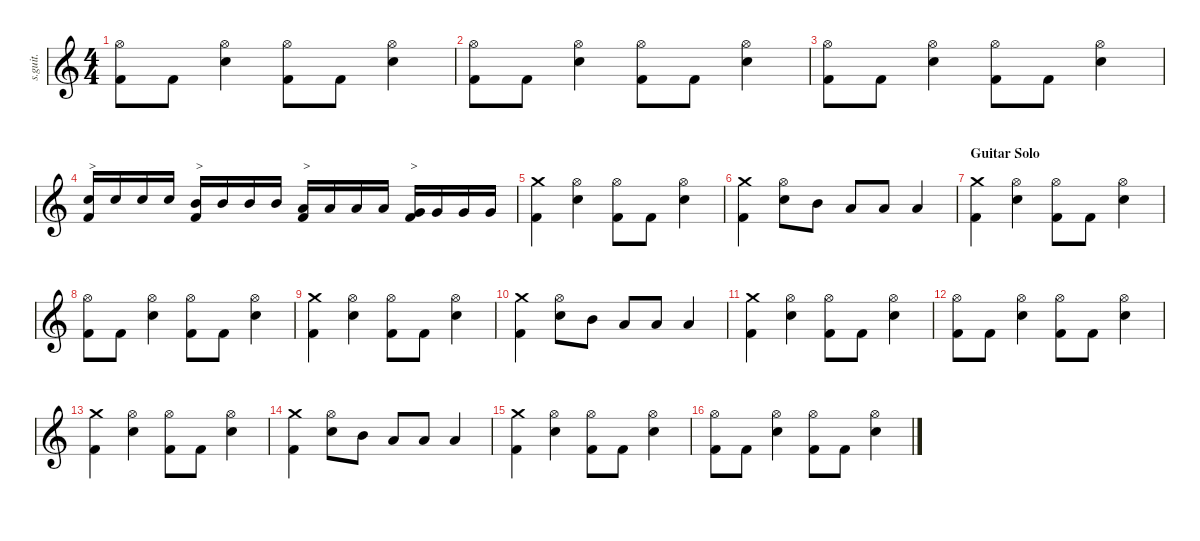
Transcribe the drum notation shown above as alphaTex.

\defaultSystemsLayout 4
\hideDynamics
\bracketExtendMode nobrackets
\track ("Lars Ulrich - Drums" "s.guit.") {instrument percussion}
\staff {score}
\articulation defaults
\ts (4 4)
\tempo (208 hide)
\clef g2
\ks c
("Hi-Hat (open)" "Kick (hit) 2").8{lyrics (0 "") lyrics (1 "") lyrics (2 "") lyrics (3 "") lyrics (4 "") dy f} "Kick (hit) 2".8{lyrics (0 "") lyrics (1 "") lyrics (2 "") lyrics (3 "") lyrics (4 "") dy fff} ("Hi-Hat (open)" "Snare (hit) 2").4{lyrics (0 "") lyrics (1 "") lyrics (2 "") lyrics (3 "") lyrics (4 "") dy f} ("Hi-Hat (open)" "Kick (hit) 2").8{lyrics (0 "") lyrics (1 "") lyrics (2 "") lyrics (3 "") lyrics (4 "")} "Kick (hit) 2".8{lyrics (0 "") lyrics (1 "") lyrics (2 "") lyrics (3 "") lyrics (4 "") dy fff} ("Hi-Hat (open)" "Snare (hit) 2").4{lyrics (0 "") lyrics (1 "") lyrics (2 "") lyrics (3 "") lyrics (4 "") dy f} |
("Hi-Hat (open)" "Kick (hit) 2").8{lyrics (0 "") lyrics (1 "") lyrics (2 "") lyrics (3 "") lyrics (4 "")} "Kick (hit) 2".8{lyrics (0 "") lyrics (1 "") lyrics (2 "") lyrics (3 "") lyrics (4 "") dy fff} ("Hi-Hat (open)" "Snare (hit) 2").4{lyrics (0 "") lyrics (1 "") lyrics (2 "") lyrics (3 "") lyrics (4 "") dy f} ("Hi-Hat (open)" "Kick (hit) 2").8{lyrics (0 "") lyrics (1 "") lyrics (2 "") lyrics (3 "") lyrics (4 "")} "Kick (hit) 2".8{lyrics (0 "") lyrics (1 "") lyrics (2 "") lyrics (3 "") lyrics (4 "") dy fff} ("Hi-Hat (open)" "Snare (hit) 2").4{lyrics (0 "") lyrics (1 "") lyrics (2 "") lyrics (3 "") lyrics (4 "") dy f} |
("Hi-Hat (open)" "Kick (hit) 2").8{lyrics (0 "") lyrics (1 "") lyrics (2 "") lyrics (3 "") lyrics (4 "")} "Kick (hit) 2".8{lyrics (0 "") lyrics (1 "") lyrics (2 "") lyrics (3 "") lyrics (4 "") dy fff} ("Hi-Hat (open)" "Snare (hit) 2").4{lyrics (0 "") lyrics (1 "") lyrics (2 "") lyrics (3 "") lyrics (4 "") dy f} ("Hi-Hat (open)" "Kick (hit) 2").8{lyrics (0 "") lyrics (1 "") lyrics (2 "") lyrics (3 "") lyrics (4 "")} "Kick (hit) 2".8{lyrics (0 "") lyrics (1 "") lyrics (2 "") lyrics (3 "") lyrics (4 "") dy fff} ("Hi-Hat (open)" "Snare (hit) 2").4{lyrics (0 "") lyrics (1 "") lyrics (2 "") lyrics (3 "") lyrics (4 "") dy f} |
("Snare (hit) 2" "Kick (hit) 2").16{txt ">" lyrics (0 "") lyrics (1 "") lyrics (2 "") lyrics (3 "") lyrics (4 "") dy fff} "Snare (hit) 2".16{lyrics (0 "") lyrics (1 "") lyrics (2 "") lyrics (3 "") lyrics (4 "") dy f} "Snare (hit) 2".16{lyrics (0 "") lyrics (1 "") lyrics (2 "") lyrics (3 "") lyrics (4 "")} "Snare (hit) 2".16{lyrics (0 "") lyrics (1 "") lyrics (2 "") lyrics (3 "") lyrics (4 "")} ("Mid Tom (hit)" "Kick (hit) 2").16{txt ">" lyrics (0 "") lyrics (1 "") lyrics (2 "") lyrics (3 "") lyrics (4 "") dy fff} "Mid Tom (hit)".16{lyrics (0 "") lyrics (1 "") lyrics (2 "") lyrics (3 "") lyrics (4 "") dy ff} "Mid Tom (hit)".16{lyrics (0 "") lyrics (1 "") lyrics (2 "") lyrics (3 "") lyrics (4 "")} "Mid Tom (hit)".16{lyrics (0 "") lyrics (1 "") lyrics (2 "") lyrics (3 "") lyrics (4 "")} ("Low Tom (hit)" "Kick (hit) 2").16{txt ">" lyrics (0 "") lyrics (1 "") lyrics (2 "") lyrics (3 "") lyrics (4 "") dy fff} "Low Tom (hit)".16{lyrics (0 "") lyrics (1 "") lyrics (2 "") lyrics (3 "") lyrics (4 "") dy ff} "Low Tom (hit)".16{lyrics (0 "") lyrics (1 "") lyrics (2 "") lyrics (3 "") lyrics (4 "")} "Low Tom (hit)".16{lyrics (0 "") lyrics (1 "") lyrics (2 "") lyrics (3 "") lyrics (4 "")} ("Very Low Tom (hit)" "Kick (hit) 2").16{txt ">" lyrics (0 "") lyrics (1 "") lyrics (2 "") lyrics (3 "") lyrics (4 "")} "Very Low Tom (hit)".16{lyrics (0 "") lyrics (1 "") lyrics (2 "") lyrics (3 "") lyrics (4 "") dy f} "Very Low Tom (hit)".16{lyrics (0 "") lyrics (1 "") lyrics (2 "") lyrics (3 "") lyrics (4 "")} "Very Low Tom (hit)".16{lyrics (0 "") lyrics (1 "") lyrics (2 "") lyrics (3 "") lyrics (4 "")} |
("Crash medium (hit)" "Kick (hit) 2").4{lyrics (0 "") lyrics (1 "") lyrics (2 "") lyrics (3 "") lyrics (4 "")} ("Hi-Hat (open)" "Snare (hit) 2").4{lyrics (0 "") lyrics (1 "") lyrics (2 "") lyrics (3 "") lyrics (4 "")} ("Hi-Hat (open)" "Kick (hit) 2").8{lyrics (0 "") lyrics (1 "") lyrics (2 "") lyrics (3 "") lyrics (4 "")} "Kick (hit) 2".8{lyrics (0 "") lyrics (1 "") lyrics (2 "") lyrics (3 "") lyrics (4 "") dy fff} ("Hi-Hat (open)" "Snare (hit) 2").4{lyrics (0 "") lyrics (1 "") lyrics (2 "") lyrics (3 "") lyrics (4 "") dy f} |
("Crash medium (hit)" "Kick (hit) 2").4{lyrics (0 "") lyrics (1 "") lyrics (2 "") lyrics (3 "") lyrics (4 "")} ("Hi-Hat (open)" "Snare (hit) 2").8{lyrics (0 "") lyrics (1 "") lyrics (2 "") lyrics (3 "") lyrics (4 "")} "Mid Tom (hit)".8{lyrics (0 "") lyrics (1 "") lyrics (2 "") lyrics (3 "") lyrics (4 "") dy fff} "Low Tom (hit)".8{lyrics (0 "") lyrics (1 "") lyrics (2 "") lyrics (3 "") lyrics (4 "")} "Low Tom (hit)".8{lyrics (0 "") lyrics (1 "") lyrics (2 "") lyrics (3 "") lyrics (4 "")} "Low Tom (hit)".4{lyrics (0 "") lyrics (1 "") lyrics (2 "") lyrics (3 "") lyrics (4 "")} |
\section ("" "Guitar Solo")
("Crash medium (hit)" "Kick (hit) 2").4{lyrics (0 "") lyrics (1 "") lyrics (2 "") lyrics (3 "") lyrics (4 "") dy f} ("Hi-Hat (open)" "Snare (hit) 2").4{lyrics (0 "") lyrics (1 "") lyrics (2 "") lyrics (3 "") lyrics (4 "")} ("Hi-Hat (open)" "Kick (hit) 2").8{lyrics (0 "") lyrics (1 "") lyrics (2 "") lyrics (3 "") lyrics (4 "")} "Kick (hit) 2".8{lyrics (0 "") lyrics (1 "") lyrics (2 "") lyrics (3 "") lyrics (4 "") dy fff} ("Hi-Hat (open)" "Snare (hit) 2").4{lyrics (0 "") lyrics (1 "") lyrics (2 "") lyrics (3 "") lyrics (4 "") dy f} |
("Hi-Hat (open)" "Kick (hit) 2").8{lyrics (0 "") lyrics (1 "") lyrics (2 "") lyrics (3 "") lyrics (4 "")} "Kick (hit) 2".8{lyrics (0 "") lyrics (1 "") lyrics (2 "") lyrics (3 "") lyrics (4 "") dy fff} ("Hi-Hat (open)" "Snare (hit) 2").4{lyrics (0 "") lyrics (1 "") lyrics (2 "") lyrics (3 "") lyrics (4 "") dy f} ("Hi-Hat (open)" "Kick (hit) 2").8{lyrics (0 "") lyrics (1 "") lyrics (2 "") lyrics (3 "") lyrics (4 "")} "Kick (hit) 2".8{lyrics (0 "") lyrics (1 "") lyrics (2 "") lyrics (3 "") lyrics (4 "") dy fff} ("Hi-Hat (open)" "Snare (hit) 2").4{lyrics (0 "") lyrics (1 "") lyrics (2 "") lyrics (3 "") lyrics (4 "") dy f} |
("Crash medium (hit)" "Kick (hit) 2").4{lyrics (0 "") lyrics (1 "") lyrics (2 "") lyrics (3 "") lyrics (4 "")} ("Hi-Hat (open)" "Snare (hit) 2").4{lyrics (0 "") lyrics (1 "") lyrics (2 "") lyrics (3 "") lyrics (4 "")} ("Hi-Hat (open)" "Kick (hit) 2").8{lyrics (0 "") lyrics (1 "") lyrics (2 "") lyrics (3 "") lyrics (4 "")} "Kick (hit) 2".8{lyrics (0 "") lyrics (1 "") lyrics (2 "") lyrics (3 "") lyrics (4 "") dy fff} ("Hi-Hat (open)" "Snare (hit) 2").4{lyrics (0 "") lyrics (1 "") lyrics (2 "") lyrics (3 "") lyrics (4 "") dy f} |
("Crash medium (hit)" "Kick (hit) 2").4{lyrics (0 "") lyrics (1 "") lyrics (2 "") lyrics (3 "") lyrics (4 "")} ("Hi-Hat (open)" "Snare (hit) 2").8{lyrics (0 "") lyrics (1 "") lyrics (2 "") lyrics (3 "") lyrics (4 "")} "Mid Tom (hit)".8{lyrics (0 "") lyrics (1 "") lyrics (2 "") lyrics (3 "") lyrics (4 "") dy fff} "Low Tom (hit)".8{lyrics (0 "") lyrics (1 "") lyrics (2 "") lyrics (3 "") lyrics (4 "")} "Low Tom (hit)".8{lyrics (0 "") lyrics (1 "") lyrics (2 "") lyrics (3 "") lyrics (4 "")} "Low Tom (hit)".4{lyrics (0 "") lyrics (1 "") lyrics (2 "") lyrics (3 "") lyrics (4 "")} |
("Crash medium (hit)" "Kick (hit) 2").4{lyrics (0 "") lyrics (1 "") lyrics (2 "") lyrics (3 "") lyrics (4 "") dy f} ("Hi-Hat (open)" "Snare (hit) 2").4{lyrics (0 "") lyrics (1 "") lyrics (2 "") lyrics (3 "") lyrics (4 "")} ("Hi-Hat (open)" "Kick (hit) 2").8{lyrics (0 "") lyrics (1 "") lyrics (2 "") lyrics (3 "") lyrics (4 "")} "Kick (hit) 2".8{lyrics (0 "") lyrics (1 "") lyrics (2 "") lyrics (3 "") lyrics (4 "") dy fff} ("Hi-Hat (open)" "Snare (hit) 2").4{lyrics (0 "") lyrics (1 "") lyrics (2 "") lyrics (3 "") lyrics (4 "") dy f} |
("Hi-Hat (open)" "Kick (hit) 2").8{lyrics (0 "") lyrics (1 "") lyrics (2 "") lyrics (3 "") lyrics (4 "")} "Kick (hit) 2".8{lyrics (0 "") lyrics (1 "") lyrics (2 "") lyrics (3 "") lyrics (4 "") dy fff} ("Hi-Hat (open)" "Snare (hit) 2").4{lyrics (0 "") lyrics (1 "") lyrics (2 "") lyrics (3 "") lyrics (4 "") dy f} ("Hi-Hat (open)" "Kick (hit) 2").8{lyrics (0 "") lyrics (1 "") lyrics (2 "") lyrics (3 "") lyrics (4 "")} "Kick (hit) 2".8{lyrics (0 "") lyrics (1 "") lyrics (2 "") lyrics (3 "") lyrics (4 "") dy fff} ("Hi-Hat (open)" "Snare (hit) 2").4{lyrics (0 "") lyrics (1 "") lyrics (2 "") lyrics (3 "") lyrics (4 "") dy f} |
("Crash medium (hit)" "Kick (hit) 2").4{lyrics (0 "") lyrics (1 "") lyrics (2 "") lyrics (3 "") lyrics (4 "")} ("Hi-Hat (open)" "Snare (hit) 2").4{lyrics (0 "") lyrics (1 "") lyrics (2 "") lyrics (3 "") lyrics (4 "")} ("Hi-Hat (open)" "Kick (hit) 2").8{lyrics (0 "") lyrics (1 "") lyrics (2 "") lyrics (3 "") lyrics (4 "")} "Kick (hit) 2".8{lyrics (0 "") lyrics (1 "") lyrics (2 "") lyrics (3 "") lyrics (4 "") dy fff} ("Hi-Hat (open)" "Snare (hit) 2").4{lyrics (0 "") lyrics (1 "") lyrics (2 "") lyrics (3 "") lyrics (4 "") dy f} |
("Crash medium (hit)" "Kick (hit) 2").4{lyrics (0 "") lyrics (1 "") lyrics (2 "") lyrics (3 "") lyrics (4 "")} ("Hi-Hat (open)" "Snare (hit) 2").8{lyrics (0 "") lyrics (1 "") lyrics (2 "") lyrics (3 "") lyrics (4 "")} "Mid Tom (hit)".8{lyrics (0 "") lyrics (1 "") lyrics (2 "") lyrics (3 "") lyrics (4 "") dy fff} "Low Tom (hit)".8{lyrics (0 "") lyrics (1 "") lyrics (2 "") lyrics (3 "") lyrics (4 "")} "Low Tom (hit)".8{lyrics (0 "") lyrics (1 "") lyrics (2 "") lyrics (3 "") lyrics (4 "")} "Low Tom (hit)".4{lyrics (0 "") lyrics (1 "") lyrics (2 "") lyrics (3 "") lyrics (4 "")} |
("Crash medium (hit)" "Kick (hit) 2").4{lyrics (0 "") lyrics (1 "") lyrics (2 "") lyrics (3 "") lyrics (4 "") dy f} ("Hi-Hat (open)" "Snare (hit) 2").4{lyrics (0 "") lyrics (1 "") lyrics (2 "") lyrics (3 "") lyrics (4 "")} ("Hi-Hat (open)" "Kick (hit) 2").8{lyrics (0 "") lyrics (1 "") lyrics (2 "") lyrics (3 "") lyrics (4 "")} "Kick (hit) 2".8{lyrics (0 "") lyrics (1 "") lyrics (2 "") lyrics (3 "") lyrics (4 "") dy fff} ("Hi-Hat (open)" "Snare (hit) 2").4{lyrics (0 "") lyrics (1 "") lyrics (2 "") lyrics (3 "") lyrics (4 "") dy f} |
("Hi-Hat (open)" "Kick (hit) 2").8{lyrics (0 "") lyrics (1 "") lyrics (2 "") lyrics (3 "") lyrics (4 "")} "Kick (hit) 2".8{lyrics (0 "") lyrics (1 "") lyrics (2 "") lyrics (3 "") lyrics (4 "") dy fff} ("Hi-Hat (open)" "Snare (hit) 2").4{lyrics (0 "") lyrics (1 "") lyrics (2 "") lyrics (3 "") lyrics (4 "") dy f} ("Hi-Hat (open)" "Kick (hit) 2").8{lyrics (0 "") lyrics (1 "") lyrics (2 "") lyrics (3 "") lyrics (4 "")} "Kick (hit) 2".8{lyrics (0 "") lyrics (1 "") lyrics (2 "") lyrics (3 "") lyrics (4 "") dy fff} ("Hi-Hat (open)" "Snare (hit) 2").4{lyrics (0 "") lyrics (1 "") lyrics (2 "") lyrics (3 "") lyrics (4 "") dy f}
